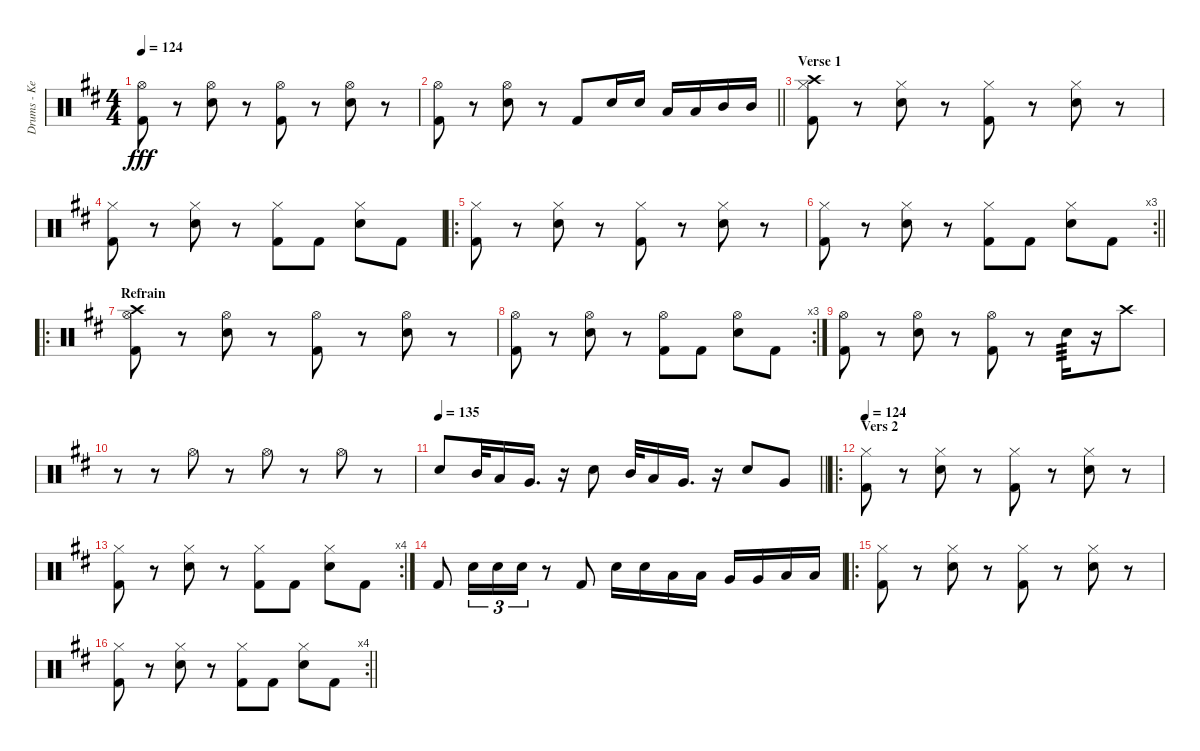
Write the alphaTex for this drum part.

\track ("Drums - Kevin Frank" "Drums - Ke") {instrument percussion}
\staff {score}
\articulation defaults
\ts (4 4)
\tempo 124
\clef neutral
\ks d
("Hi-Hat (open)" "Kick (hit) 2").8{dy fff} r.8 ("Hi-Hat (open)" "Snare (hit) 2").8 r.8 ("Hi-Hat (open)" "Kick (hit) 2").8 r.8 ("Hi-Hat (open)" "Snare (hit) 2").8 r.8 |
\barLineRight lightlight
("Hi-Hat (open)" "Kick (hit) 2").8 r.8 ("Hi-Hat (open)" "Snare (hit) 2").8 r.8 "Kick (hit) 2".8 "Snare (hit) 2".16 "Snare (hit) 2".16 "Low Tom (hit)".16 "Low Tom (hit)".16 "Mid Tom (hit)".16 "Mid Tom (hit)".16 |
\section ("" "Verse 1")
("Crash high (hit)" "Hi-Hat (closed)" "Kick (hit) 2").8 r.8 ("Hi-Hat (closed)" "Snare (hit) 2").8 r.8 ("Hi-Hat (closed)" "Kick (hit) 2").8 r.8 ("Hi-Hat (closed)" "Snare (hit) 2").8 r.8 |
("Hi-Hat (closed)" "Kick (hit) 2").8 r.8 ("Hi-Hat (closed)" "Snare (hit) 2").8 r.8 ("Hi-Hat (closed)" "Kick (hit) 2").8 "Kick (hit) 2".8 ("Hi-Hat (closed)" "Snare (hit) 2").8 "Kick (hit) 2".8 |
\ro
("Hi-Hat (closed)" "Kick (hit) 2").8 r.8 ("Hi-Hat (closed)" "Snare (hit) 2").8 r.8 ("Hi-Hat (closed)" "Kick (hit) 2").8 r.8 ("Hi-Hat (closed)" "Snare (hit) 2").8 r.8 |
\rc 3
\barLineRight lightlight
("Hi-Hat (closed)" "Kick (hit) 2").8 r.8 ("Hi-Hat (closed)" "Snare (hit) 2").8 r.8 ("Hi-Hat (closed)" "Kick (hit) 2").8 "Kick (hit) 2".8 ("Hi-Hat (closed)" "Snare (hit) 2").8 "Kick (hit) 2".8 |
\ro
\section ("" "Refrain")
("Crash high (hit)" "Hi-Hat (open)" "Kick (hit) 2").8 r.8 ("Hi-Hat (open)" "Snare (hit) 2").8 r.8 ("Hi-Hat (open)" "Kick (hit) 2").8 r.8 ("Hi-Hat (open)" "Snare (hit) 2").8 r.8 |
\rc 3
("Hi-Hat (open)" "Kick (hit) 2").8 r.8 ("Hi-Hat (open)" "Snare (hit) 2").8 r.8 ("Hi-Hat (open)" "Kick (hit) 2").8 "Kick (hit) 2".8 ("Hi-Hat (open)" "Snare (hit) 2").8 "Kick (hit) 2".8 |
("Hi-Hat (open)" "Kick (hit) 2").8 r.8 ("Hi-Hat (open)" "Snare (hit) 2").8 r.8 ("Hi-Hat (open)" "Kick (hit) 2").8 r.8 "Snare (hit) 2".16{tp 3} r.16 "Crash high (hit)".8 |
r.8 r.8 "Hi-Hat (open)".8 r.8 "Hi-Hat (open)".8 r.8 "Hi-Hat (open)".8 r.8 |
\tempo 135
\barLineRight lightlight "Snare (hit) 2".8 "Mid Tom (hit)".32 "Low Tom (hit)".16 "Very Low Tom (hit)".16{d}
r.16 "Snare (hit) 2".8 "Mid Tom (hit)".32 "Low Tom (hit)".16 "Very Low Tom (hit)".16{d} r.16 "Snare (hit) 2".8 "Very Low Tom (hit)".8 |
\ro
\section ("" "Vers 2")
\tempo 124
("Hi-Hat (closed)" "Kick (hit) 2").8 r.8 ("Hi-Hat (closed)" "Snare (hit) 2").8 r.8 ("Hi-Hat (closed)" "Kick (hit) 2").8 r.8 ("Hi-Hat (closed)" "Snare (hit) 2").8 r.8 |
\rc 4
("Hi-Hat (closed)" "Kick (hit) 2").8 r.8 ("Hi-Hat (closed)" "Snare (hit) 2").8 r.8 ("Hi-Hat (closed)" "Kick (hit) 2").8 "Kick (hit) 2".8 ("Hi-Hat (closed)" "Snare (hit) 2").8 "Kick (hit) 2".8 |
"Kick (hit) 2".8 "Snare (hit) 2".16{tu (3 2)} "Snare (hit) 2".16{tu (3 2)} "Snare (hit) 2".16{tu (3 2)} r.8 "Kick (hit) 2".8 "Snare (hit) 2".16 "Snare (hit) 2".16 "Low Tom (hit)".16 "Low Tom (hit)".16 "Very Low Tom (hit)".16 "Very Low Tom (hit)".16 "Low Floor Tom (hit)".16 "Low Floor Tom (hit)".16 |
\ro
("Hi-Hat (closed)" "Kick (hit) 2").8 r.8 ("Hi-Hat (closed)" "Snare (hit) 2").8 r.8 ("Hi-Hat (closed)" "Kick (hit) 2").8 r.8 ("Hi-Hat (closed)" "Snare (hit) 2").8 r.8 |
\rc 4
\barLineRight lightlight
("Hi-Hat (closed)" "Kick (hit) 2").8 r.8 ("Hi-Hat (closed)" "Snare (hit) 2").8 r.8 ("Hi-Hat (closed)" "Kick (hit) 2").8 "Kick (hit) 2".8 ("Hi-Hat (closed)" "Snare (hit) 2").8 "Kick (hit) 2".8
